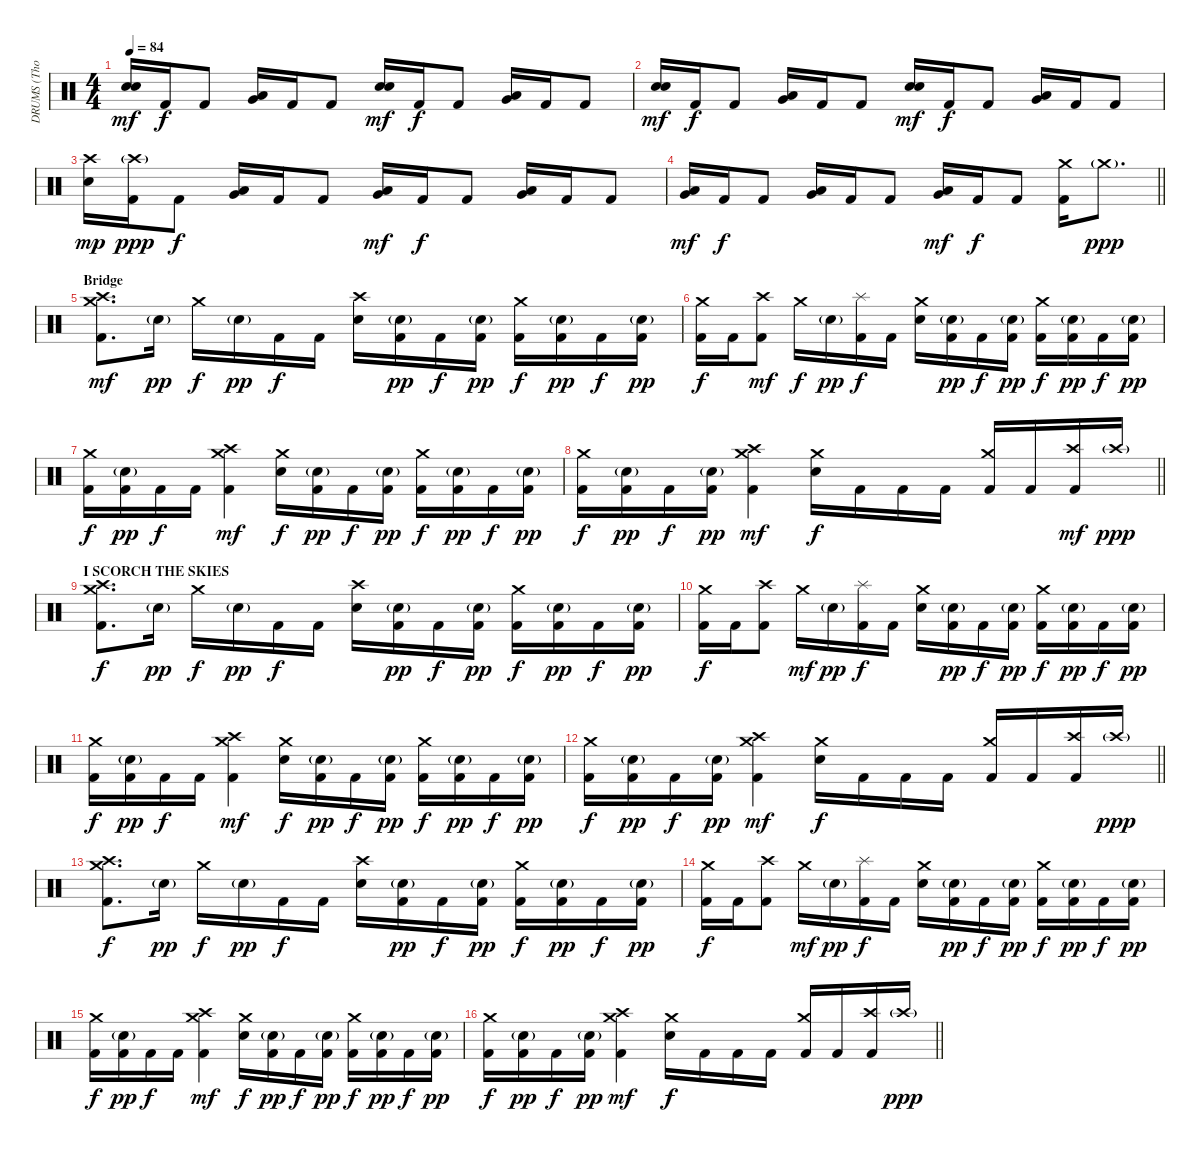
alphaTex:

\track ("DRUMS (Thomas Haake)" "DRUMS (Tho") {instrument percussion}
\staff {score}
\articulation defaults
\ts (4 4)
\tempo 84
\clef neutral
\ks c
("Electric Snare (hit)" "Electric Snare (hit)").16{bd 240 dy mf} "Kick (hit) 2".16{dy f} "Kick (hit) 2".8 ("Very Low Tom (hit)" "Low Floor Tom (hit)").16{bd 30} "Kick (hit) 2".16 "Kick (hit) 2".8 ("Electric Snare (hit)" "Electric Snare (hit)").16{bd 240 dy mf} "Kick (hit) 2".16{dy f} "Kick (hit) 2".8 ("Very Low Tom (hit)" "Low Floor Tom (hit)").16{bd 30} "Kick (hit) 2".16 "Kick (hit) 2".8 |
("Electric Snare (hit)" "Electric Snare (hit)").16{bd 240 dy mf} "Kick (hit) 2".16{dy f} "Kick (hit) 2".8 ("Very Low Tom (hit)" "Low Floor Tom (hit)").16{bd 120} "Kick (hit) 2".16 "Kick (hit) 2".8 ("Electric Snare (hit)" "Electric Snare (hit)").16{bd 240 dy mf} "Kick (hit) 2".16{dy f} "Kick (hit) 2".8 ("Very Low Tom (hit)" "Low Floor Tom (hit)").16{bd 120} "Kick (hit) 2".16 "Kick (hit) 2".8 |
("Crash high (hit)" "Electric Snare (hit)").16{dy mp} ("Crash high (hit)"{g} "Kick (hit) 2").16{dy ppp} "Kick (hit) 2".8{dy f} ("Very Low Tom (hit)" "Low Floor Tom (hit)").16{bd 60} "Kick (hit) 2".16 "Kick (hit) 2".8 ("Very Low Tom (hit)" "Low Floor Tom (hit)").16{dy mf} "Kick (hit) 2".16{dy f} "Kick (hit) 2".8 ("Very Low Tom (hit)" "Low Floor Tom (hit)").16{bd 60} "Kick (hit) 2".16 "Kick (hit) 2".8 |
\barLineRight lightlight
("Very Low Tom (hit)" "Low Floor Tom (hit)").16{dy mf} "Kick (hit) 2".16{dy f} "Kick (hit) 2".8 ("Very Low Tom (hit)" "Low Floor Tom (hit)").16{bd 60} "Kick (hit) 2".16 "Kick (hit) 2".8 ("Very Low Tom (hit)" "Low Floor Tom (hit)").16{dy mf} "Kick (hit) 2".16{dy f} "Kick (hit) 2".8 ("Crash medium (hit)" "Kick (hit) 2").16 "Crash medium (hit)"{g}.8{d dy ppp} |
\section ("" "Bridge")
("Crash medium (hit)" "Crash high (hit)" "Kick (hit) 2").8{d dy mf} "Electric Snare (hit)"{g}.16{dy pp} "Crash medium (hit)".16{dy f} "Electric Snare (hit)"{g}.16{dy pp} "Kick (hit) 2".16{dy f} "Kick (hit) 2".16 ("Crash high (hit)" "Electric Snare (hit)").16 ("Electric Snare (hit)"{g} "Kick (hit) 2").16{dy pp} "Kick (hit) 2".16{dy f} ("Electric Snare (hit)"{g} "Kick (hit) 2").16{dy pp} ("Crash medium (hit)" "Kick (hit) 2").16{dy f} ("Electric Snare (hit)"{g} "Kick (hit) 2").16{dy pp} "Kick (hit) 2".16{dy f} ("Electric Snare (hit)"{g} "Kick (hit) 2").16{dy pp} |
("Crash medium (hit)" "Kick (hit) 2").16{dy f} "Kick (hit) 2".16 ("Crash high (hit)" "Kick (hit) 2").8{dy mf} "Crash medium (hit)".16{dy f} "Electric Snare (hit)"{g}.16{dy pp} ("Splash (hit)" "Kick (hit) 2").16{dy f} "Kick (hit) 2".16 ("Crash medium (hit)" "Electric Snare (hit)").16 ("Electric Snare (hit)"{g} "Kick (hit) 2").16{dy pp} "Kick (hit) 2".16{dy f} ("Electric Snare (hit)"{g} "Kick (hit) 2").16{dy pp} ("Crash medium (hit)" "Kick (hit) 2").16{dy f} ("Electric Snare (hit)"{g} "Kick (hit) 2").16{dy pp} "Kick (hit) 2".16{dy f} ("Electric Snare (hit)"{g} "Kick (hit) 2").16{dy pp} |
("Crash medium (hit)" "Kick (hit) 2").16{dy f} ("Electric Snare (hit)"{g} "Kick (hit) 2").16{dy pp} "Kick (hit) 2".16{dy f} "Kick (hit) 2".16 ("Crash high (hit)" "Crash medium (hit)" "Kick (hit) 2").4{dy mf} ("Crash medium (hit)" "Electric Snare (hit)").16{dy f} ("Electric Snare (hit)"{g} "Kick (hit) 2").16{dy pp} "Kick (hit) 2".16{dy f} ("Electric Snare (hit)"{g} "Kick (hit) 2").16{dy pp} ("Crash medium (hit)" "Kick (hit) 2").16{dy f} ("Electric Snare (hit)"{g} "Kick (hit) 2").16{dy pp} "Kick (hit) 2".16{dy f} ("Electric Snare (hit)"{g} "Kick (hit) 2").16{dy pp} |
\barLineRight lightlight
("Crash medium (hit)" "Kick (hit) 2").16{dy f} ("Electric Snare (hit)"{g} "Kick (hit) 2").16{dy pp} "Kick (hit) 2".16{dy f} ("Electric Snare (hit)"{g} "Kick (hit) 2").16{dy pp} ("Crash medium (hit)" "Crash high (hit)" "Kick (hit) 2").4{dy mf} ("Crash medium (hit)" "Electric Snare (hit)").16{dy f} "Kick (hit) 2".16 "Kick (hit) 2".16 "Kick (hit) 2".16 ("Crash medium (hit)" "Kick (hit) 2").16{beam Up} "Kick (hit) 2".16{beam Up} ("Crash high (hit)" "Kick (hit) 2").16{dy mf beam Up} "Crash high (hit)"{g}.16{dy ppp beam Up} |
\section ("" "I SCORCH THE SKIES")
("Crash medium (hit)" "Crash high (hit)" "Kick (hit) 2").8{d dy f} "Electric Snare (hit)"{g}.16{dy pp} "Crash medium (hit)".16{dy f} "Electric Snare (hit)"{g}.16{dy pp} "Kick (hit) 2".16{dy f} "Kick (hit) 2".16 ("Crash high (hit)" "Electric Snare (hit)").16 ("Electric Snare (hit)"{g} "Kick (hit) 2").16{dy pp} "Kick (hit) 2".16{dy f} ("Electric Snare (hit)"{g} "Kick (hit) 2").16{dy pp} ("Crash medium (hit)" "Kick (hit) 2").16{dy f} ("Electric Snare (hit)"{g} "Kick (hit) 2").16{dy pp} "Kick (hit) 2".16{dy f} ("Electric Snare (hit)"{g} "Kick (hit) 2").16{dy pp} |
("Crash medium (hit)" "Kick (hit) 2").16{dy f} "Kick (hit) 2".16 ("Crash high (hit)" "Kick (hit) 2").8 "Crash medium (hit)".16{dy mf} "Electric Snare (hit)"{g}.16{dy pp} ("Splash (hit)" "Kick (hit) 2").16{dy f} "Kick (hit) 2".16 ("Crash medium (hit)" "Electric Snare (hit)").16 ("Electric Snare (hit)"{g} "Kick (hit) 2").16{dy pp} "Kick (hit) 2".16{dy f} ("Electric Snare (hit)"{g} "Kick (hit) 2").16{dy pp} ("Crash medium (hit)" "Kick (hit) 2").16{dy f} ("Electric Snare (hit)"{g} "Kick (hit) 2").16{dy pp} "Kick (hit) 2".16{dy f} ("Electric Snare (hit)"{g} "Kick (hit) 2").16{dy pp} |
("Crash medium (hit)" "Kick (hit) 2").16{dy f} ("Electric Snare (hit)"{g} "Kick (hit) 2").16{dy pp} "Kick (hit) 2".16{dy f} "Kick (hit) 2".16 ("Crash high (hit)" "Crash medium (hit)" "Kick (hit) 2").4{dy mf} ("Crash medium (hit)" "Electric Snare (hit)").16{dy f} ("Electric Snare (hit)"{g} "Kick (hit) 2").16{dy pp} "Kick (hit) 2".16{dy f} ("Electric Snare (hit)"{g} "Kick (hit) 2").16{dy pp} ("Crash medium (hit)" "Kick (hit) 2").16{dy f} ("Electric Snare (hit)"{g} "Kick (hit) 2").16{dy pp} "Kick (hit) 2".16{dy f} ("Electric Snare (hit)"{g} "Kick (hit) 2").16{dy pp} |
\barLineRight lightlight
("Crash medium (hit)" "Kick (hit) 2").16{dy f} ("Electric Snare (hit)"{g} "Kick (hit) 2").16{dy pp} "Kick (hit) 2".16{dy f} ("Electric Snare (hit)"{g} "Kick (hit) 2").16{dy pp} ("Crash medium (hit)" "Crash high (hit)" "Kick (hit) 2").4{dy mf} ("Crash medium (hit)" "Electric Snare (hit)").16{dy f} "Kick (hit) 2".16 "Kick (hit) 2".16 "Kick (hit) 2".16 ("Crash medium (hit)" "Kick (hit) 2").16{beam Up} "Kick (hit) 2".16{beam Up} ("Crash high (hit)" "Kick (hit) 2").16{beam Up} "Crash high (hit)"{g}.16{dy ppp beam Up} |
("Crash medium (hit)" "Crash high (hit)" "Kick (hit) 2").8{d dy f} "Electric Snare (hit)"{g}.16{dy pp} "Crash medium (hit)".16{dy f} "Electric Snare (hit)"{g}.16{dy pp} "Kick (hit) 2".16{dy f} "Kick (hit) 2".16 ("Crash high (hit)" "Electric Snare (hit)").16 ("Electric Snare (hit)"{g} "Kick (hit) 2").16{dy pp} "Kick (hit) 2".16{dy f} ("Electric Snare (hit)"{g} "Kick (hit) 2").16{dy pp} ("Crash medium (hit)" "Kick (hit) 2").16{dy f} ("Electric Snare (hit)"{g} "Kick (hit) 2").16{dy pp} "Kick (hit) 2".16{dy f} ("Electric Snare (hit)"{g} "Kick (hit) 2").16{dy pp} |
("Crash medium (hit)" "Kick (hit) 2").16{dy f} "Kick (hit) 2".16 ("Crash high (hit)" "Kick (hit) 2").8 "Crash medium (hit)".16{dy mf} "Electric Snare (hit)"{g}.16{dy pp} ("Splash (hit)" "Kick (hit) 2").16{dy f} "Kick (hit) 2".16 ("Crash medium (hit)" "Electric Snare (hit)").16 ("Electric Snare (hit)"{g} "Kick (hit) 2").16{dy pp} "Kick (hit) 2".16{dy f} ("Electric Snare (hit)"{g} "Kick (hit) 2").16{dy pp} ("Crash medium (hit)" "Kick (hit) 2").16{dy f} ("Electric Snare (hit)"{g} "Kick (hit) 2").16{dy pp} "Kick (hit) 2".16{dy f} ("Electric Snare (hit)"{g} "Kick (hit) 2").16{dy pp} |
("Crash medium (hit)" "Kick (hit) 2").16{dy f} ("Electric Snare (hit)"{g} "Kick (hit) 2").16{dy pp} "Kick (hit) 2".16{dy f} "Kick (hit) 2".16 ("Crash high (hit)" "Crash medium (hit)" "Kick (hit) 2").4{dy mf} ("Crash medium (hit)" "Electric Snare (hit)").16{dy f} ("Electric Snare (hit)"{g} "Kick (hit) 2").16{dy pp} "Kick (hit) 2".16{dy f} ("Electric Snare (hit)"{g} "Kick (hit) 2").16{dy pp} ("Crash medium (hit)" "Kick (hit) 2").16{dy f} ("Electric Snare (hit)"{g} "Kick (hit) 2").16{dy pp} "Kick (hit) 2".16{dy f} ("Electric Snare (hit)"{g} "Kick (hit) 2").16{dy pp} |
\barLineRight lightlight
("Crash medium (hit)" "Kick (hit) 2").16{dy f} ("Electric Snare (hit)"{g} "Kick (hit) 2").16{dy pp} "Kick (hit) 2".16{dy f} ("Electric Snare (hit)"{g} "Kick (hit) 2").16{dy pp} ("Crash medium (hit)" "Crash high (hit)" "Kick (hit) 2").4{dy mf} ("Crash medium (hit)" "Electric Snare (hit)").16{dy f} "Kick (hit) 2".16 "Kick (hit) 2".16 "Kick (hit) 2".16 ("Crash medium (hit)" "Kick (hit) 2").16{beam Up} "Kick (hit) 2".16{beam Up} ("Crash high (hit)" "Kick (hit) 2").16{beam Up} "Crash high (hit)"{g}.16{dy ppp beam Up}
